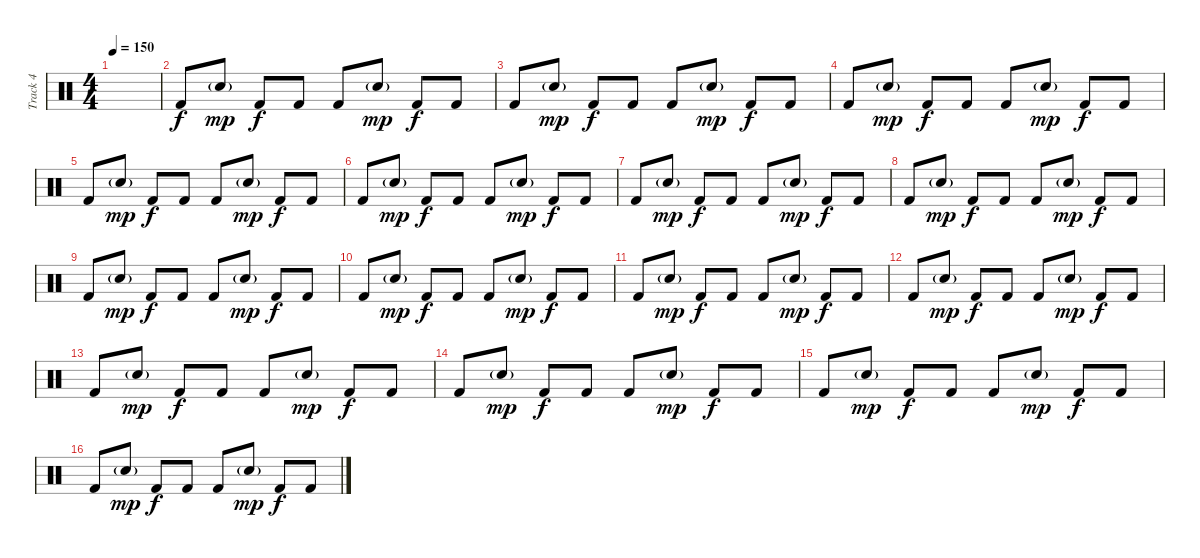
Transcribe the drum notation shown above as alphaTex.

\track ("Track 4" "Track 4") {instrument percussion}
\staff {score}
\articulation defaults
\ts (4 4)
\tempo 150
\clef neutral
\ks c
|
"Kick (hit) 2".8 "Snare (hit) 2"{g}.8{dy mp} "Kick (hit) 2".8{dy f} "Kick (hit) 2".8 "Kick (hit) 2".8 "Snare (hit) 2"{g}.8{dy mp} "Kick (hit) 2".8{dy f} "Kick (hit) 2".8 |
"Kick (hit) 2".8 "Snare (hit) 2"{g}.8{dy mp} "Kick (hit) 2".8{dy f} "Kick (hit) 2".8 "Kick (hit) 2".8 "Snare (hit) 2"{g}.8{dy mp} "Kick (hit) 2".8{dy f} "Kick (hit) 2".8 |
"Kick (hit) 2".8 "Snare (hit) 2"{g}.8{dy mp} "Kick (hit) 2".8{dy f} "Kick (hit) 2".8 "Kick (hit) 2".8 "Snare (hit) 2"{g}.8{dy mp} "Kick (hit) 2".8{dy f} "Kick (hit) 2".8 |
"Kick (hit) 2".8 "Snare (hit) 2"{g}.8{dy mp} "Kick (hit) 2".8{dy f} "Kick (hit) 2".8 "Kick (hit) 2".8 "Snare (hit) 2"{g}.8{dy mp} "Kick (hit) 2".8{dy f} "Kick (hit) 2".8 |
"Kick (hit) 2".8 "Snare (hit) 2"{g}.8{dy mp} "Kick (hit) 2".8{dy f} "Kick (hit) 2".8 "Kick (hit) 2".8 "Snare (hit) 2"{g}.8{dy mp} "Kick (hit) 2".8{dy f} "Kick (hit) 2".8 |
"Kick (hit) 2".8 "Snare (hit) 2"{g}.8{dy mp} "Kick (hit) 2".8{dy f} "Kick (hit) 2".8 "Kick (hit) 2".8 "Snare (hit) 2"{g}.8{dy mp} "Kick (hit) 2".8{dy f} "Kick (hit) 2".8 |
"Kick (hit) 2".8 "Snare (hit) 2"{g}.8{dy mp} "Kick (hit) 2".8{dy f} "Kick (hit) 2".8 "Kick (hit) 2".8 "Snare (hit) 2"{g}.8{dy mp} "Kick (hit) 2".8{dy f} "Kick (hit) 2".8 |
"Kick (hit) 2".8 "Snare (hit) 2"{g}.8{dy mp} "Kick (hit) 2".8{dy f} "Kick (hit) 2".8 "Kick (hit) 2".8 "Snare (hit) 2"{g}.8{dy mp} "Kick (hit) 2".8{dy f} "Kick (hit) 2".8 |
"Kick (hit) 2".8 "Snare (hit) 2"{g}.8{dy mp} "Kick (hit) 2".8{dy f} "Kick (hit) 2".8 "Kick (hit) 2".8 "Snare (hit) 2"{g}.8{dy mp} "Kick (hit) 2".8{dy f} "Kick (hit) 2".8 |
"Kick (hit) 2".8 "Snare (hit) 2"{g}.8{dy mp} "Kick (hit) 2".8{dy f} "Kick (hit) 2".8 "Kick (hit) 2".8 "Snare (hit) 2"{g}.8{dy mp} "Kick (hit) 2".8{dy f} "Kick (hit) 2".8 |
"Kick (hit) 2".8 "Snare (hit) 2"{g}.8{dy mp} "Kick (hit) 2".8{dy f} "Kick (hit) 2".8 "Kick (hit) 2".8 "Snare (hit) 2"{g}.8{dy mp} "Kick (hit) 2".8{dy f} "Kick (hit) 2".8 |
"Kick (hit) 2".8 "Snare (hit) 2"{g}.8{dy mp} "Kick (hit) 2".8{dy f} "Kick (hit) 2".8 "Kick (hit) 2".8 "Snare (hit) 2"{g}.8{dy mp} "Kick (hit) 2".8{dy f} "Kick (hit) 2".8 |
"Kick (hit) 2".8 "Snare (hit) 2"{g}.8{dy mp} "Kick (hit) 2".8{dy f} "Kick (hit) 2".8 "Kick (hit) 2".8 "Snare (hit) 2"{g}.8{dy mp} "Kick (hit) 2".8{dy f} "Kick (hit) 2".8 |
"Kick (hit) 2".8 "Snare (hit) 2"{g}.8{dy mp} "Kick (hit) 2".8{dy f} "Kick (hit) 2".8 "Kick (hit) 2".8 "Snare (hit) 2"{g}.8{dy mp} "Kick (hit) 2".8{dy f} "Kick (hit) 2".8 |
"Kick (hit) 2".8 "Snare (hit) 2"{g}.8{dy mp} "Kick (hit) 2".8{dy f} "Kick (hit) 2".8 "Kick (hit) 2".8 "Snare (hit) 2"{g}.8{dy mp} "Kick (hit) 2".8{dy f} "Kick (hit) 2".8
